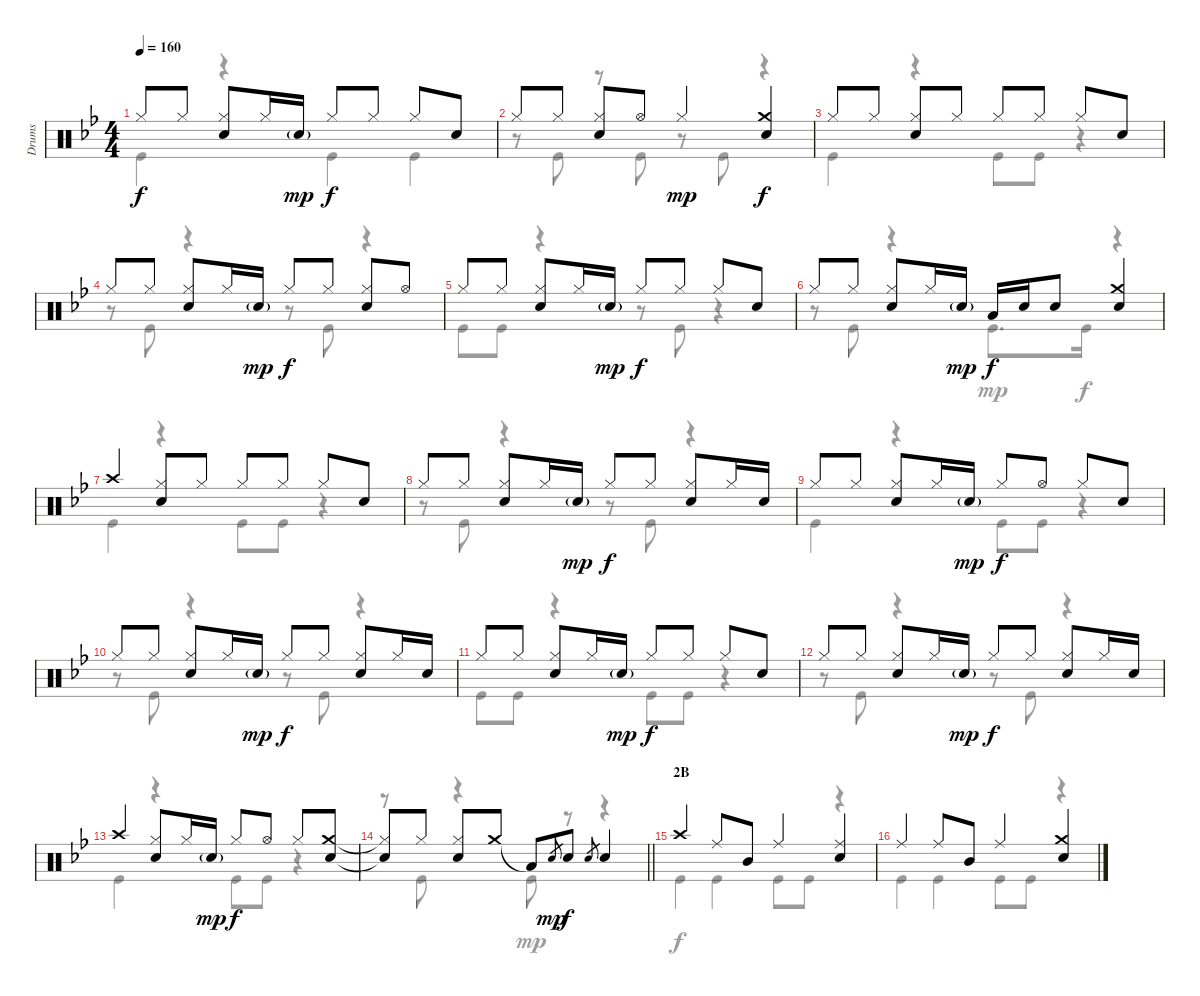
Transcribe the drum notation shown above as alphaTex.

\track ("Drums" "Drums") {instrument percussion}
\staff {score}
\articulation defaults
\voice
\ts (4 4)
\tempo 160
\clef neutral
\ks bb "Hi-Hat (closed)".8{dy f} "Hi-Hat (closed)".8
("Hi-Hat (closed)" "Snare (hit) 2").8 "Hi-Hat (closed)".16 "Snare (hit) 2"{g}.16{dy mp} "Hi-Hat (closed)".8{dy f} "Hi-Hat (closed)".8 "Hi-Hat (closed)".8 "Snare (hit) 2".8 |
"Hi-Hat (closed)".8 "Hi-Hat (closed)".8 ("Hi-Hat (closed)" "Snare (hit) 2").8 "Hi-Hat (open)".8 "Hi-Hat (closed)".4{dy mp} ("Crash medium (hit)" "Snare (hit) 2").4{dy f} |
"Hi-Hat (closed)".8 "Hi-Hat (closed)".8 ("Hi-Hat (closed)" "Snare (hit) 2").8 "Hi-Hat (closed)".8 "Hi-Hat (closed)".8 "Hi-Hat (closed)".8 "Hi-Hat (closed)".8 "Snare (hit) 2".8 |
"Hi-Hat (closed)".8 "Hi-Hat (closed)".8 ("Hi-Hat (closed)" "Snare (hit) 2").8 "Hi-Hat (closed)".16 "Snare (hit) 2"{g}.16{dy mp} "Hi-Hat (closed)".8{dy f} "Hi-Hat (closed)".8 ("Hi-Hat (closed)" "Snare (hit) 2").8 "Hi-Hat (open)".8 |
"Hi-Hat (closed)".8 "Hi-Hat (closed)".8 ("Hi-Hat (closed)" "Snare (hit) 2").8 "Hi-Hat (closed)".16 "Snare (hit) 2"{g}.16{dy mp} "Hi-Hat (closed)".8{dy f} "Hi-Hat (closed)".8 "Hi-Hat (closed)".8 "Snare (hit) 2".8 |
"Hi-Hat (closed)".8 "Hi-Hat (closed)".8 ("Hi-Hat (closed)" "Snare (hit) 2").8 "Hi-Hat (closed)".16 "Snare (hit) 2"{g}.16{dy mp} "Low Tom (hit)".16{dy f} "Snare (hit) 2".16 "Snare (hit) 2".8 ("Crash medium (hit)" "Snare (hit) 2").4 |
"Crash high (hit)".4 ("Hi-Hat (closed)" "Snare (hit) 2").8 "Hi-Hat (closed)".8 "Hi-Hat (closed)".8 "Hi-Hat (closed)".8 "Hi-Hat (closed)".8 "Snare (hit) 2".8 |
"Hi-Hat (closed)".8 "Hi-Hat (closed)".8 ("Hi-Hat (closed)" "Snare (hit) 2").8 "Hi-Hat (closed)".16 "Snare (hit) 2"{g}.16{dy mp} "Hi-Hat (closed)".8{dy f} "Hi-Hat (closed)".8 ("Hi-Hat (closed)" "Snare (hit) 2").8 "Hi-Hat (closed)".16 "Snare (hit) 2".16 |
"Hi-Hat (closed)".8 "Hi-Hat (closed)".8 ("Hi-Hat (closed)" "Snare (hit) 2").8 "Hi-Hat (closed)".16 "Snare (hit) 2"{g}.16{dy mp} "Hi-Hat (closed)".8{dy f} "Hi-Hat (open)".8 "Hi-Hat (closed)".8 "Snare (hit) 2".8 |
"Hi-Hat (closed)".8 "Hi-Hat (closed)".8 ("Hi-Hat (closed)" "Snare (hit) 2").8 "Hi-Hat (closed)".16 "Snare (hit) 2"{g}.16{dy mp} "Hi-Hat (closed)".8{dy f} "Hi-Hat (closed)".8 ("Hi-Hat (closed)" "Snare (hit) 2").8 "Hi-Hat (closed)".16 "Snare (hit) 2".16 |
"Hi-Hat (closed)".8 "Hi-Hat (closed)".8 ("Hi-Hat (closed)" "Snare (hit) 2").8 "Hi-Hat (closed)".16 "Snare (hit) 2"{g}.16{dy mp} "Hi-Hat (closed)".8{dy f} "Hi-Hat (closed)".8 "Hi-Hat (closed)".8 "Snare (hit) 2".8 |
"Hi-Hat (closed)".8 "Hi-Hat (closed)".8 ("Hi-Hat (closed)" "Snare (hit) 2").8 "Hi-Hat (closed)".16 "Snare (hit) 2"{g}.16{dy mp} "Hi-Hat (closed)".8{dy f} "Hi-Hat (closed)".8 ("Hi-Hat (closed)" "Snare (hit) 2").8 "Hi-Hat (closed)".16 "Snare (hit) 2".16 |
"Crash high (hit)".4 ("Hi-Hat (closed)" "Snare (hit) 2").8 "Hi-Hat (closed)".16 "Snare (hit) 2"{g}.16{dy mp} "Hi-Hat (closed)".8{dy f} "Hi-Hat (open)".8 "Hi-Hat (closed)".8 ("Crash medium (hit)" "Snare (hit) 2").8 |
\barLineRight lightlight
("Hi-Hat (closed)"{t} "Snare (hit)"{t}).8 "Hi-Hat (closed)".8 ("Hi-Hat (closed)" "Snare (hit) 2").8 "Crash medium (hit)".8 "Low Tom (hit)"{t}.8 "Snare (hit) 2".8{gr dy mp} "Snare (hit) 2".8{dy f} "Snare (hit) 2".8{gr} "Snare (hit) 2".4 |
\section ("" "2B")
"Crash high (hit)".4 "Ride (middle)".8 "Mid Tom (hit)".8 "Ride (middle)".4 ("Ride (middle)" "Snare (hit) 2").4 |
"Ride (middle)".4 "Ride (middle)".8 "Mid Tom (hit)".8 "Ride (middle)".4 ("Crash medium (hit)" "Snare (hit) 2").4
\voice
\clef neutral
\ottava regular
\simile none
\ks bb "Kick (hit)".4{dy f}
r.4 "Kick (hit)".4 "Kick (hit)".4 |
r.8 "Kick (hit)".8 r.8 "Kick (hit)".8 r.8 "Kick (hit)".8 r.4 |
"Kick (hit)".4 r.4 "Kick (hit)".8 "Kick (hit)".8 r.4 |
r.8 "Kick (hit)".8 r.4 r.8 "Kick (hit)".8 r.4 |
"Kick (hit)".8 "Kick (hit)".8 r.4 r.8 "Kick (hit)".8 r.4 |
r.8 "Kick (hit)".8 r.4 "Kick (hit)".8{d dy mp} "Kick (hit)".16{dy f} r.4 |
"Kick (hit)".4 r.4 "Kick (hit)".8 "Kick (hit)".8 r.4 |
r.8 "Kick (hit)".8 r.4 r.8 "Kick (hit)".8 r.4 |
"Kick (hit)".4 r.4 "Kick (hit)".8 "Kick (hit)".8 r.4 |
r.8 "Kick (hit)".8 r.4 r.8 "Kick (hit)".8 r.4 |
"Kick (hit)".8 "Kick (hit)".8 r.4 "Kick (hit)".8 "Kick (hit)".8 r.4 |
r.8 "Kick (hit)".8 r.4 r.8 "Kick (hit)".8 r.4 |
"Kick (hit)".4 r.4 "Kick (hit)".8 "Kick (hit)".8 r.4 |
\barLineRight lightlight
r.8 "Kick (hit)".8 r.4 "Kick (hit)".8{dy mp} r.8 r.4 |
"Kick (hit)".4{dy f} "Kick (hit)".4 "Kick (hit)".8 "Kick (hit)".8 r.4 |
"Kick (hit)".4 "Kick (hit)".4 "Kick (hit)".8 "Kick (hit)".8 r.4
